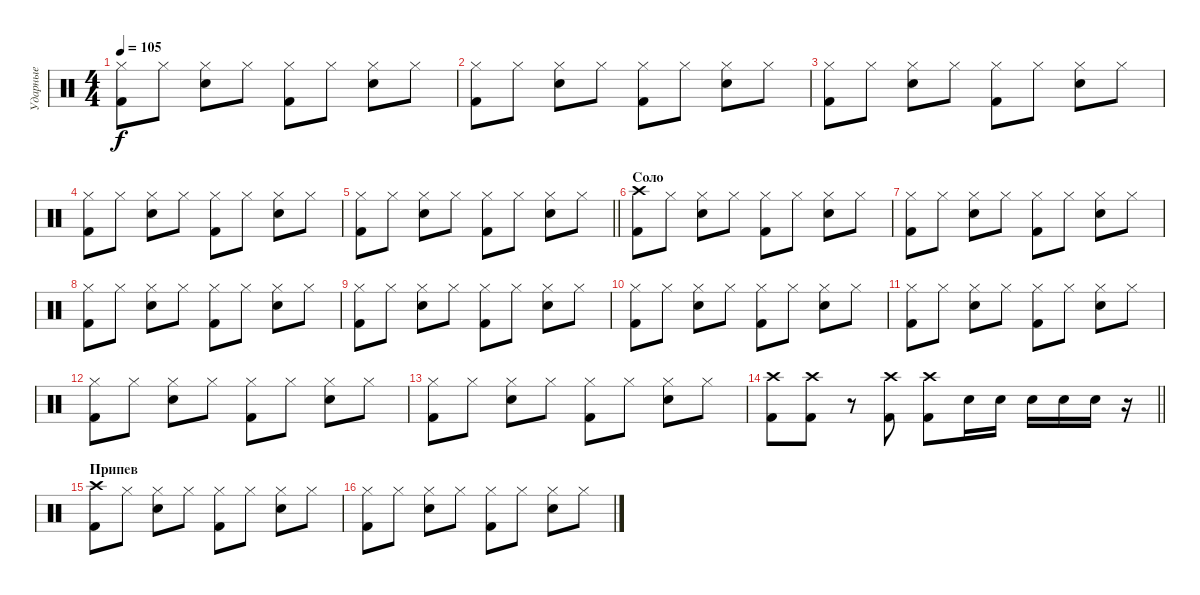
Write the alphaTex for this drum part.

\track ("Ударные" "Ударные") {instrument percussion}
\staff {score}
\articulation defaults
\ts (4 4)
\tempo 105
\clef neutral
\ks c
("Hi-Hat (closed)" "Kick (hit) 2").8{dy f} "Hi-Hat (closed)".8 ("Hi-Hat (closed)" "Snare (hit) 2").8 "Hi-Hat (closed)".8 ("Hi-Hat (closed)" "Kick (hit) 2").8 "Hi-Hat (closed)".8 ("Hi-Hat (closed)" "Snare (hit) 2").8 "Hi-Hat (closed)".8 |
("Hi-Hat (closed)" "Kick (hit) 2").8 "Hi-Hat (closed)".8 ("Hi-Hat (closed)" "Snare (hit) 2").8 "Hi-Hat (closed)".8 ("Hi-Hat (closed)" "Kick (hit) 2").8 "Hi-Hat (closed)".8 ("Hi-Hat (closed)" "Snare (hit) 2").8 "Hi-Hat (closed)".8 |
("Hi-Hat (closed)" "Kick (hit) 2").8 "Hi-Hat (closed)".8 ("Hi-Hat (closed)" "Snare (hit) 2").8 "Hi-Hat (closed)".8 ("Hi-Hat (closed)" "Kick (hit) 2").8 "Hi-Hat (closed)".8 ("Hi-Hat (closed)" "Snare (hit) 2").8 "Hi-Hat (closed)".8 |
("Hi-Hat (closed)" "Kick (hit) 2").8 "Hi-Hat (closed)".8 ("Hi-Hat (closed)" "Snare (hit) 2").8 "Hi-Hat (closed)".8 ("Hi-Hat (closed)" "Kick (hit) 2").8 "Hi-Hat (closed)".8 ("Hi-Hat (closed)" "Snare (hit) 2").8 "Hi-Hat (closed)".8 |
\barLineRight lightlight
("Hi-Hat (closed)" "Kick (hit) 2").8 "Hi-Hat (closed)".8 ("Hi-Hat (closed)" "Snare (hit) 2").8 "Hi-Hat (closed)".8 ("Hi-Hat (closed)" "Kick (hit) 2").8 "Hi-Hat (closed)".8 ("Hi-Hat (closed)" "Snare (hit) 2").8 "Hi-Hat (closed)".8 |
\section ("" "Соло")
("Crash high (hit)" "Kick (hit) 2").8 "Hi-Hat (closed)".8 ("Hi-Hat (closed)" "Snare (hit) 2").8 "Hi-Hat (closed)".8 ("Hi-Hat (closed)" "Kick (hit) 2").8 "Hi-Hat (closed)".8 ("Hi-Hat (closed)" "Snare (hit) 2").8 "Hi-Hat (closed)".8 |
("Hi-Hat (closed)" "Kick (hit) 2").8 "Hi-Hat (closed)".8 ("Hi-Hat (closed)" "Snare (hit) 2").8 "Hi-Hat (closed)".8 ("Hi-Hat (closed)" "Kick (hit) 2").8 "Hi-Hat (closed)".8 ("Hi-Hat (closed)" "Snare (hit) 2").8 "Hi-Hat (closed)".8 |
("Hi-Hat (closed)" "Kick (hit) 2").8 "Hi-Hat (closed)".8 ("Hi-Hat (closed)" "Snare (hit) 2").8 "Hi-Hat (closed)".8 ("Hi-Hat (closed)" "Kick (hit) 2").8 "Hi-Hat (closed)".8 ("Hi-Hat (closed)" "Snare (hit) 2").8 "Hi-Hat (closed)".8 |
("Hi-Hat (closed)" "Kick (hit) 2").8 "Hi-Hat (closed)".8 ("Hi-Hat (closed)" "Snare (hit) 2").8 "Hi-Hat (closed)".8 ("Hi-Hat (closed)" "Kick (hit) 2").8 "Hi-Hat (closed)".8 ("Hi-Hat (closed)" "Snare (hit) 2").8 "Hi-Hat (closed)".8 |
("Hi-Hat (closed)" "Kick (hit) 2").8 "Hi-Hat (closed)".8 ("Hi-Hat (closed)" "Snare (hit) 2").8 "Hi-Hat (closed)".8 ("Hi-Hat (closed)" "Kick (hit) 2").8 "Hi-Hat (closed)".8 ("Hi-Hat (closed)" "Snare (hit) 2").8 "Hi-Hat (closed)".8 |
("Hi-Hat (closed)" "Kick (hit) 2").8 "Hi-Hat (closed)".8 ("Hi-Hat (closed)" "Snare (hit) 2").8 "Hi-Hat (closed)".8 ("Hi-Hat (closed)" "Kick (hit) 2").8 "Hi-Hat (closed)".8 ("Hi-Hat (closed)" "Snare (hit) 2").8 "Hi-Hat (closed)".8 |
("Hi-Hat (closed)" "Kick (hit) 2").8 "Hi-Hat (closed)".8 ("Hi-Hat (closed)" "Snare (hit) 2").8 "Hi-Hat (closed)".8 ("Hi-Hat (closed)" "Kick (hit) 2").8 "Hi-Hat (closed)".8 ("Hi-Hat (closed)" "Snare (hit) 2").8 "Hi-Hat (closed)".8 |
("Hi-Hat (closed)" "Kick (hit) 2").8 "Hi-Hat (closed)".8 ("Hi-Hat (closed)" "Snare (hit) 2").8 "Hi-Hat (closed)".8 ("Hi-Hat (closed)" "Kick (hit) 2").8 "Hi-Hat (closed)".8 ("Hi-Hat (closed)" "Snare (hit) 2").8 "Hi-Hat (closed)".8 |
\barLineRight lightlight
("Kick (hit) 2" "Crash high (hit)").8 ("Kick (hit) 2" "Crash high (hit)").8 r.8 ("Kick (hit) 2" "Crash high (hit)").8 ("Kick (hit) 2" "Crash high (hit)").8 "Snare (hit) 2".16 "Snare (hit) 2".16 "Snare (hit) 2".16 "Snare (hit) 2".16 "Snare (hit) 2".16 r.16 |
\section ("" "Припев")
("Crash high (hit)" "Kick (hit) 2").8 "Hi-Hat (closed)".8 ("Hi-Hat (closed)" "Snare (hit) 2").8 "Hi-Hat (closed)".8 ("Hi-Hat (closed)" "Kick (hit) 2").8 "Hi-Hat (closed)".8 ("Hi-Hat (closed)" "Snare (hit) 2").8 "Hi-Hat (closed)".8 |
("Hi-Hat (closed)" "Kick (hit) 2").8 "Hi-Hat (closed)".8 ("Hi-Hat (closed)" "Snare (hit) 2").8 "Hi-Hat (closed)".8 ("Hi-Hat (closed)" "Kick (hit) 2").8 "Hi-Hat (closed)".8 ("Hi-Hat (closed)" "Snare (hit) 2").8 "Hi-Hat (closed)".8
